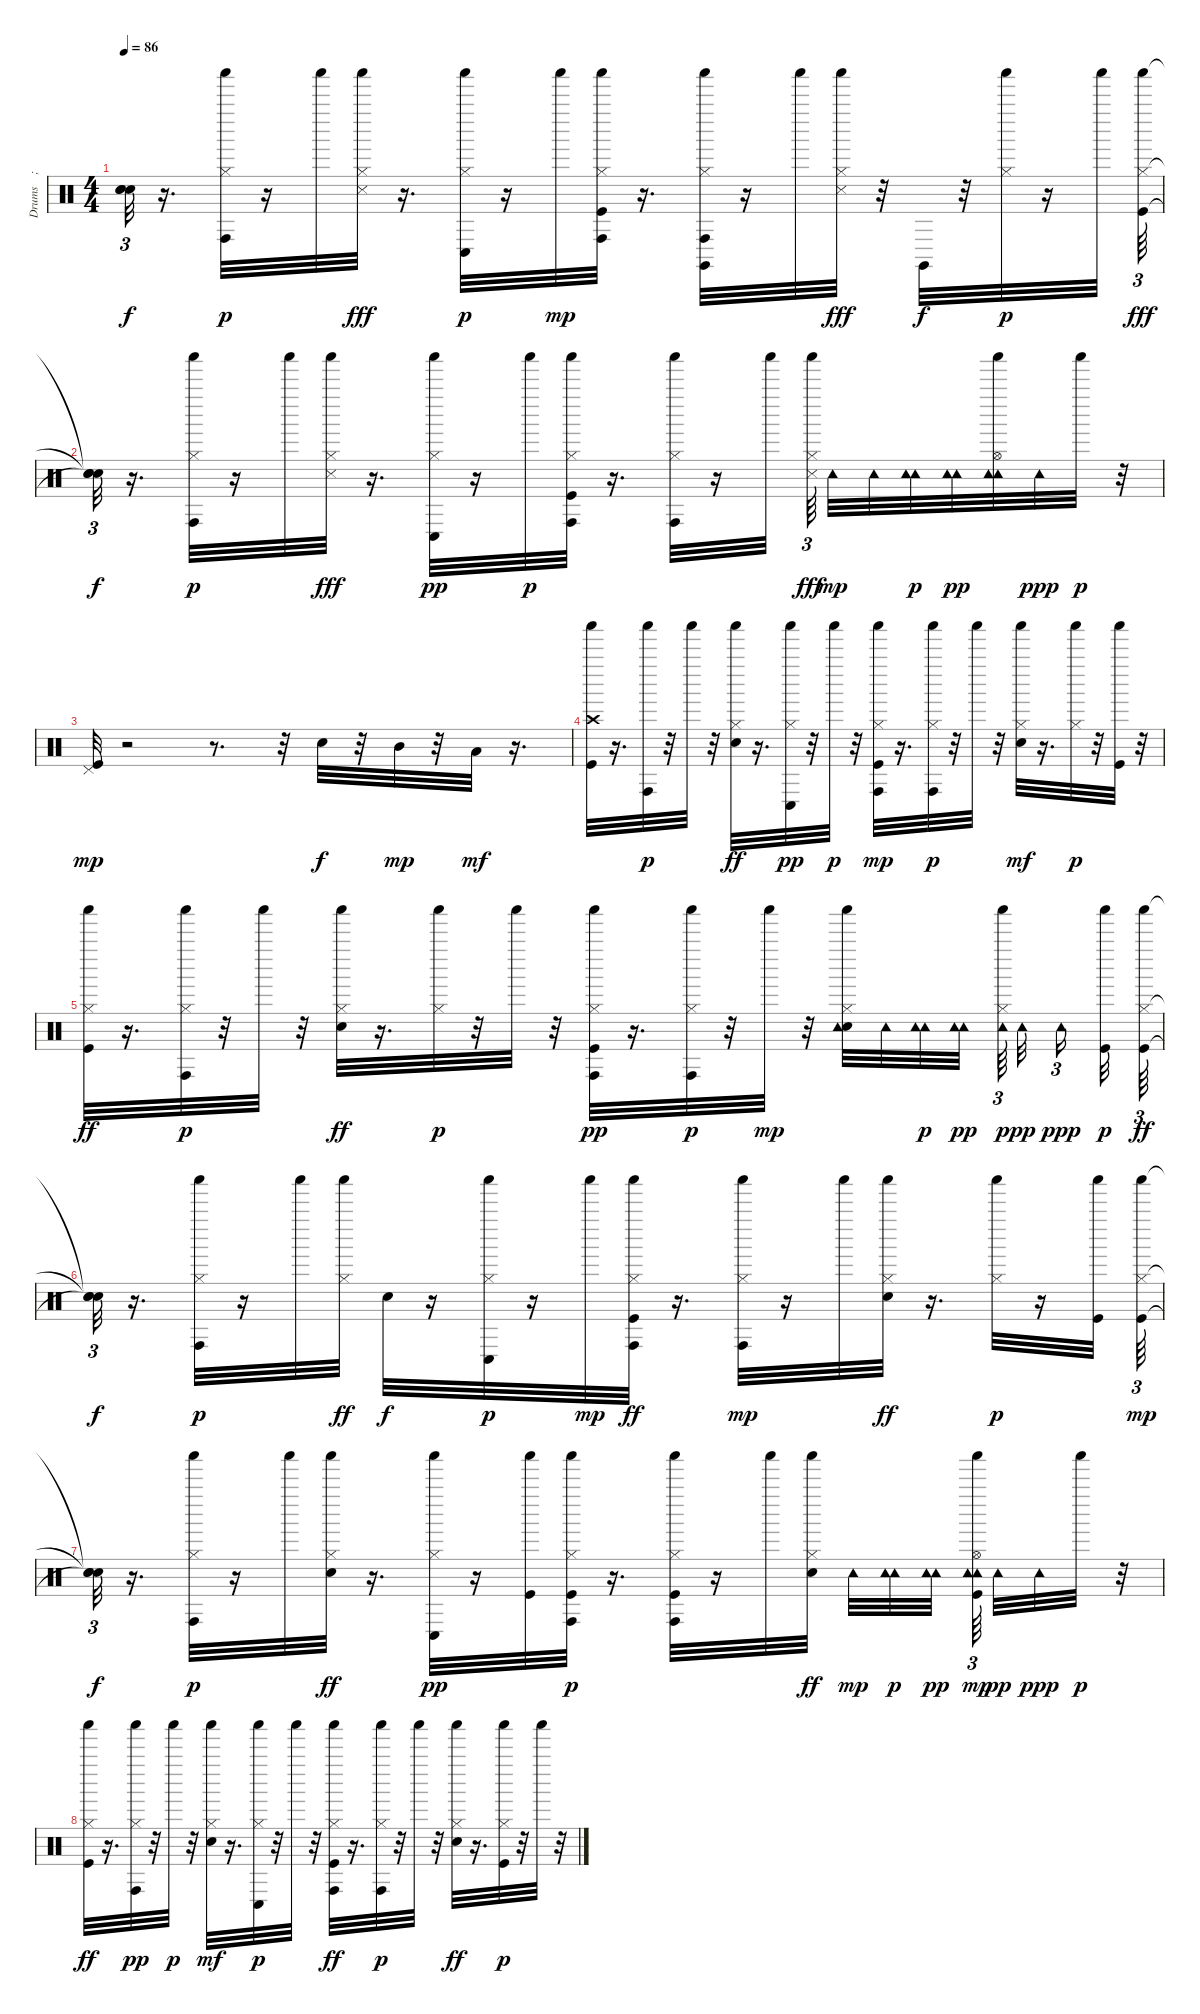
\track ("Drums    ; Standard" "Drums    ;") {instrument percussion}
\staff {score}
\articulation defaults
\ts (4 4)
\tempo 86
\clef neutral
\ks c
("Snare (hit)"{t} "Snare (hit)"{t} "Snare (hit)"{t}).32{tu (3 2) dy f} r.16{d} ("Shaker (hit)" "Hi-Hat (closed)" "Conga high (hit)").32{dy p} r.16 "Shaker (hit)".32 ("Snare (side stick) 3" "Shaker (hit)" "Hi-Hat (closed)").32{dy fff} r.16{d} ("Shaker (hit)" "Hi-Hat (closed)" "Conga low (hit)").32{dy p} r.16 "Shaker (hit)".32{dy mp} ("Kick (hit)" "Shaker (hit)" "Hi-Hat (closed)" "Conga high (hit)").32 r.16{d} ("Hi-Hat (closed)" "Shaker (hit)" "Claves (hit)" "Conga high (hit)").32 r.16 "Shaker (hit)".32 ("Shaker (hit)" "Snare (side stick) 3" "Hi-Hat (closed)").32{dy fff} r.32 "Claves (hit)".32{dy f} r.32 ("Shaker (hit)" "Hi-Hat (closed)").32{dy p} r.16 "Shaker (hit)".32 ("Shaker (hit)" "Kick (hit)" "Hi-Hat (closed)").64{tu (3 2) dy fff} |
("Snare (hit)"{t} "Snare (hit)"{t} "Snare (hit)"{t}).32{tu (3 2) dy f} r.16{d} ("Shaker (hit)" "Hi-Hat (closed)" "Conga high (hit)").32{dy p} r.16 "Shaker (hit)".32 ("Shaker (hit)" "Hi-Hat (closed)" "Snare (side stick) 3").32{dy fff} r.16{d} ("Hi-Hat (closed)" "Shaker (hit)" "Conga low (hit)").32{dy pp} r.16 "Shaker (hit)".32{dy p} ("Kick (hit)" "Hi-Hat (closed)" "Shaker (hit)" "Conga high (hit)").32 r.16{d} ("Shaker (hit)" "Conga high (hit)" "Hi-Hat (closed)").32 r.16 "Shaker (hit)".32 ("Shaker (hit)" "Snare (side stick) 3" "Hi-Hat (closed)").64{tu (3 2) dy fff} "Tambourine (hit)".32{dy mp} "Tambourine (hit)".32 ("Tambourine (hit)" "Tambourine (hit)").32{dy p} ("Tambourine (hit)" "Tambourine (hit)").32{dy pp} ("Tambourine (hit)" "Shaker (hit)" "Hi-Hat (open)" "Tambourine (hit)").32 "Tambourine (hit)".32{dy ppp} "Shaker (hit)".32{dy p} r.32 |
("Pedal Hi-Hat (hit)" "Kick (hit)").32{dy mp} r.2 r.8{d} r.32 "Electric Snare (hit)".32{dy f} r.32 "Mid Tom (hit)".32{dy mp} r.32 "Low Tom (hit)".32{dy mf} r.16{d} |
("Crash high (hit)" "Kick (hit)" "Shaker (hit)").32 r.16{d} ("Shaker (hit)" "Conga high (hit)").32{dy p} r.32 "Shaker (hit)".32 r.32 ("Shaker (hit)" "Hi-Hat (closed)" "Electric Snare (hit)").32{dy ff} r.16{d} ("Shaker (hit)" "Hi-Hat (closed)" "Conga low (hit)").32{dy pp} r.32 "Shaker (hit)".32{dy p} r.32 ("Kick (hit)" "Shaker (hit)" "Conga high (hit)" "Hi-Hat (closed)").32{dy mp} r.16{d} ("Conga high (hit)" "Shaker (hit)" "Hi-Hat (closed)").32{dy p} r.32 "Shaker (hit)".32 r.32 ("Shaker (hit)" "Hi-Hat (closed)" "Electric Snare (hit)").32{dy mf} r.16{d} ("Hi-Hat (closed)" "Shaker (hit)").32{dy p} r.32 ("Shaker (hit)" "Kick (hit)").32 r.32 |
("Kick (hit)" "Shaker (hit)" "Hi-Hat (closed)").32{dy ff} r.16{d} ("Shaker (hit)" "Hi-Hat (closed)" "Conga high (hit)").32{dy p} r.32 "Shaker (hit)".32 r.32 ("Electric Snare (hit)" "Hi-Hat (closed)" "Shaker (hit)").32{dy ff} r.16{d} ("Hi-Hat (closed)" "Shaker (hit)").32{dy p} r.32 "Shaker (hit)".32 r.32 ("Kick (hit)" "Hi-Hat (closed)" "Shaker (hit)" "Conga high (hit)").32{dy pp} r.16{d} ("Hi-Hat (closed)" "Conga high (hit)" "Shaker (hit)").32{dy p} r.32 "Shaker (hit)".32{dy mp} r.32 ("Hi-Hat (closed)" "Shaker (hit)" "Electric Snare (hit)" "Tambourine (hit)").32 "Tambourine (hit)".32 ("Tambourine (hit)" "Tambourine (hit)").32{dy p} ("Tambourine (hit)" "Tambourine (hit)").32{dy pp} ("Tambourine (hit)" "Hi-Hat (closed)" "Shaker (hit)").64{tu (3 2) dy p} "Tambourine (hit)".32{dy pp} "Tambourine (hit)".16{tu (3 2) dy ppp} ("Shaker (hit)" "Kick (hit)").32{dy p} ("Kick (hit)" "Shaker (hit)" "Hi-Hat (closed)").64{tu (3 2) dy ff} |
("Snare (hit)"{t} "Snare (hit)"{t} "Snare (hit)"{t}).32{tu (3 2) dy f} r.16{d} ("Conga high (hit)" "Shaker (hit)" "Hi-Hat (closed)").32{dy p} r.16 "Shaker (hit)".32 ("Shaker (hit)" "Hi-Hat (closed)").32{dy ff} "Electric Snare (hit)".32{dy f} r.16 ("Conga low (hit)" "Shaker (hit)" "Hi-Hat (closed)").32{dy p} r.16 "Shaker (hit)".32{dy mp} ("Kick (hit)" "Conga high (hit)" "Shaker (hit)" "Hi-Hat (closed)").32{dy ff} r.16{d} ("Conga high (hit)" "Shaker (hit)" "Hi-Hat (closed)").32{dy mp} r.16 "Shaker (hit)".32 ("Electric Snare (hit)" "Shaker (hit)" "Hi-Hat (closed)").32{dy ff} r.16{d} ("Shaker (hit)" "Hi-Hat (closed)").32{dy p} r.16 ("Shaker (hit)" "Kick (hit)").32 ("Shaker (hit)" "Kick (hit)" "Hi-Hat (closed)").64{tu (3 2) dy mp} |
("Snare (hit)"{t} "Snare (hit)"{t} "Snare (hit)"{t}).32{tu (3 2) dy f} r.16{d} ("Shaker (hit)" "Conga high (hit)" "Hi-Hat (closed)").32{dy p} r.16 "Shaker (hit)".32 ("Electric Snare (hit)" "Shaker (hit)" "Hi-Hat (closed)").32{dy ff} r.16{d} ("Shaker (hit)" "Conga low (hit)" "Hi-Hat (closed)").32{dy pp} r.16 ("Shaker (hit)" "Kick (hit)").32 ("Kick (hit)" "Shaker (hit)" "Hi-Hat (closed)" "Conga high (hit)").32{dy p} r.16{d} ("Kick (hit)" "Hi-Hat (closed)" "Shaker (hit)" "Conga high (hit)").32 r.16 "Shaker (hit)".32 ("Electric Snare (hit)" "Hi-Hat (closed)" "Shaker (hit)").32{dy ff} "Tambourine (hit)".32{dy mp} ("Tambourine (hit)" "Tambourine (hit)").32{dy p} ("Tambourine (hit)" "Tambourine (hit)").32{dy pp} ("Tambourine (hit)" "Tambourine (hit)" "Shaker (hit)" "Hi-Hat (open)" "Kick (hit)").64{tu (3 2) dy mp} "Tambourine (hit)".32{dy pp} "Tambourine (hit)".32{dy ppp} "Shaker (hit)".32{dy p} r.32 |
("Shaker (hit)" "Kick (hit)" "Hi-Hat (closed)").32{dy ff} r.16{d} ("Hi-Hat (closed)" "Conga high (hit)" "Shaker (hit)").32{dy pp} r.32 "Shaker (hit)".32{dy p} r.32 ("Shaker (hit)" "Electric Snare (hit)" "Hi-Hat (closed)").32{dy mf} r.16{d} ("Conga low (hit)" "Shaker (hit)" "Hi-Hat (closed)").32{dy p} r.32 "Shaker (hit)".32 r.32 ("Conga high (hit)" "Kick (hit)" "Shaker (hit)" "Hi-Hat (closed)").32{dy ff} r.16{d} ("Conga high (hit)" "Shaker (hit)" "Hi-Hat (closed)").32{dy p} r.32 "Shaker (hit)".32 r.32 ("Shaker (hit)" "Electric Snare (hit)" "Hi-Hat (closed)").32{dy ff} r.16{d} ("Kick (hit)" "Shaker (hit)" "Hi-Hat (closed)").32{dy p} r.32 "Shaker (hit)".32 r.32
